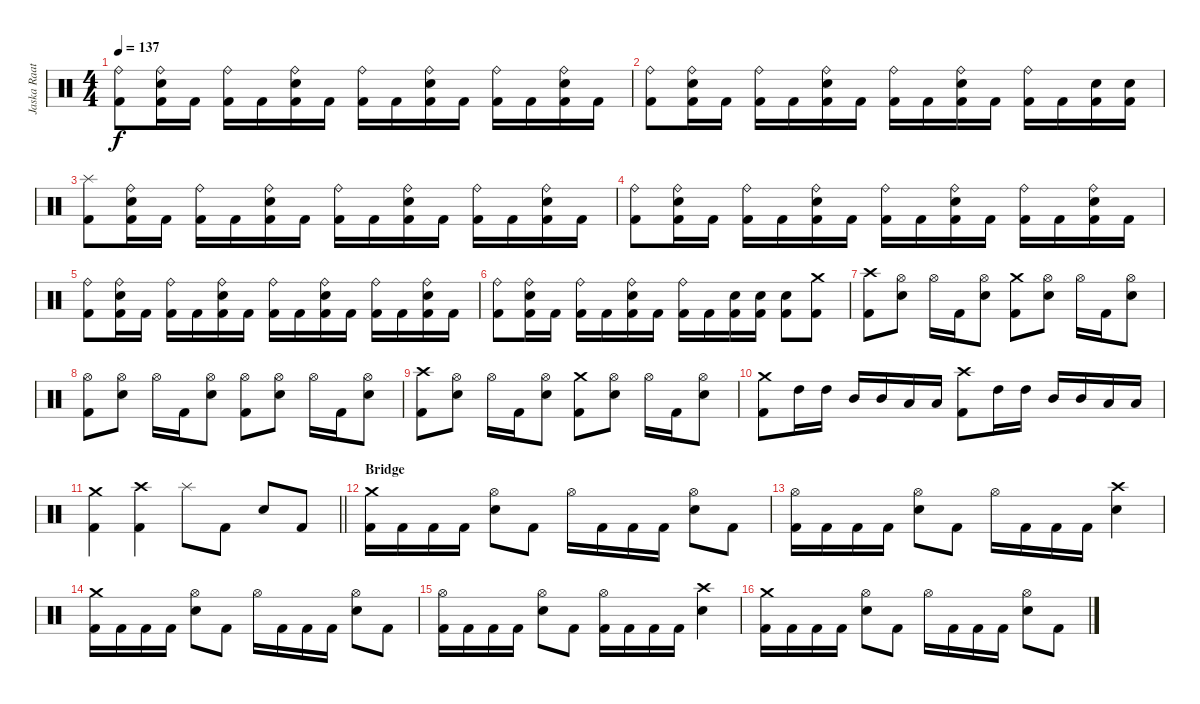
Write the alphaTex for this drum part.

\track ("Jaska Raatikainen" "Jaska Raat") {instrument percussion}
\staff {score}
\articulation defaults
\ts (4 4)
\tempo 137
\clef neutral
\ks c
("Ride (bell)" "Kick (hit) 2").8{dy f} ("Ride (bell)" "Electric Snare (hit)" "Kick (hit) 2").16 "Kick (hit) 2".16 ("Ride (bell)" "Kick (hit) 2").16 "Kick (hit) 2".16 ("Ride (bell)" "Electric Snare (hit)" "Kick (hit) 2").16 "Kick (hit) 2".16 ("Ride (bell)" "Kick (hit) 2").16 "Kick (hit) 2".16 ("Ride (bell)" "Electric Snare (hit)" "Kick (hit) 2").16 "Kick (hit) 2".16 ("Ride (bell)" "Kick (hit) 2").16 "Kick (hit) 2".16 ("Ride (bell)" "Electric Snare (hit)" "Kick (hit) 2").16 "Kick (hit) 2".16 |
("Ride (bell)" "Kick (hit) 2").8 ("Ride (bell)" "Electric Snare (hit)" "Kick (hit) 2").16 "Kick (hit) 2".16 ("Ride (bell)" "Kick (hit) 2").16 "Kick (hit) 2".16 ("Ride (bell)" "Electric Snare (hit)" "Kick (hit) 2").16 "Kick (hit) 2".16 ("Ride (bell)" "Kick (hit) 2").16 "Kick (hit) 2".16 ("Ride (bell)" "Electric Snare (hit)" "Kick (hit) 2").16 "Kick (hit) 2".16 ("Ride (bell)" "Kick (hit) 2").16 "Kick (hit) 2".16 ("Electric Snare (hit)" "Kick (hit) 2").16 ("Electric Snare (hit)" "Kick (hit) 2").16 |
("Splash (hit)" "Kick (hit) 2").8 ("Ride (bell)" "Electric Snare (hit)" "Kick (hit) 2").16 "Kick (hit) 2".16 ("Ride (bell)" "Kick (hit) 2").16 "Kick (hit) 2".16 ("Ride (bell)" "Electric Snare (hit)" "Kick (hit) 2").16 "Kick (hit) 2".16 ("Ride (bell)" "Kick (hit) 2").16 "Kick (hit) 2".16 ("Ride (bell)" "Electric Snare (hit)" "Kick (hit) 2").16 "Kick (hit) 2".16 ("Ride (bell)" "Kick (hit) 2").16 "Kick (hit) 2".16 ("Ride (bell)" "Electric Snare (hit)" "Kick (hit) 2").16 "Kick (hit) 2".16 |
("Ride (bell)" "Kick (hit) 2").8 ("Ride (bell)" "Electric Snare (hit)" "Kick (hit) 2").16 "Kick (hit) 2".16 ("Ride (bell)" "Kick (hit) 2").16 "Kick (hit) 2".16 ("Ride (bell)" "Electric Snare (hit)" "Kick (hit) 2").16 "Kick (hit) 2".16 ("Ride (bell)" "Kick (hit) 2").16 "Kick (hit) 2".16 ("Ride (bell)" "Electric Snare (hit)" "Kick (hit) 2").16 "Kick (hit) 2".16 ("Ride (bell)" "Kick (hit) 2").16 "Kick (hit) 2".16 ("Ride (bell)" "Electric Snare (hit)" "Kick (hit) 2").16 "Kick (hit) 2".16 |
("Ride (bell)" "Kick (hit) 2").8 ("Ride (bell)" "Electric Snare (hit)" "Kick (hit) 2").16 "Kick (hit) 2".16 ("Ride (bell)" "Kick (hit) 2").16 "Kick (hit) 2".16 ("Ride (bell)" "Electric Snare (hit)" "Kick (hit) 2").16 "Kick (hit) 2".16 ("Ride (bell)" "Kick (hit) 2").16 "Kick (hit) 2".16 ("Ride (bell)" "Electric Snare (hit)" "Kick (hit) 2").16 "Kick (hit) 2".16 ("Ride (bell)" "Kick (hit) 2").16 "Kick (hit) 2".16 ("Ride (bell)" "Electric Snare (hit)" "Kick (hit) 2").16 "Kick (hit) 2".16 |
("Ride (bell)" "Kick (hit) 2").8 ("Ride (bell)" "Electric Snare (hit)" "Kick (hit) 2").16 "Kick (hit) 2".16 ("Ride (bell)" "Kick (hit) 2").16 "Kick (hit) 2".16 ("Ride (bell)" "Electric Snare (hit)" "Kick (hit) 2").16 "Kick (hit) 2".16 ("Ride (bell)" "Kick (hit) 2").16 "Kick (hit) 2".16 ("Electric Snare (hit)" "Kick (hit) 2").16 ("Electric Snare (hit)" "Kick (hit) 2").16 ("Electric Snare (hit)" "Kick (hit) 2").8 ("Crash medium (hit)" "Kick (hit) 2").8 |
("Crash high (hit)" "Kick (hit) 2").8 ("Hi-Hat (open)" "Electric Snare (hit)").8 "Hi-Hat (open)".16 "Kick (hit) 2".16 ("Hi-Hat (open)" "Electric Snare (hit)").8 ("Crash medium (hit)" "Kick (hit) 2").8 ("Hi-Hat (open)" "Electric Snare (hit)").8 "Hi-Hat (open)".16 "Kick (hit) 2".16 ("Hi-Hat (open)" "Electric Snare (hit)").8 |
("Hi-Hat (open)" "Kick (hit) 2").8 ("Hi-Hat (open)" "Electric Snare (hit)").8 "Hi-Hat (open)".16 "Kick (hit) 2".16 ("Hi-Hat (open)" "Electric Snare (hit)").8 ("Hi-Hat (open)" "Kick (hit) 2").8 ("Hi-Hat (open)" "Electric Snare (hit)").8 "Hi-Hat (open)".16 "Kick (hit) 2".16 ("Hi-Hat (open)" "Electric Snare (hit)").8 |
("Crash high (hit)" "Kick (hit) 2").8 ("Hi-Hat (open)" "Electric Snare (hit)").8 "Hi-Hat (open)".16 "Kick (hit) 2".16 ("Hi-Hat (open)" "Electric Snare (hit)").8 ("Crash medium (hit)" "Kick (hit) 2").8 ("Hi-Hat (open)" "Electric Snare (hit)").8 "Hi-Hat (open)".16 "Kick (hit) 2".16 ("Hi-Hat (open)" "Electric Snare (hit)").8 |
("Crash medium (hit)" "Kick (hit) 2").8 "High Tom (hit)".16 "High Tom (hit)".16 "Mid Tom (hit)".16 "Mid Tom (hit)".16 "Low Tom (hit)".16 "Low Tom (hit)".16 ("Crash high (hit)" "Kick (hit) 2").8 "High Tom (hit)".16 "High Tom (hit)".16 "Mid Tom (hit)".16 "Mid Tom (hit)".16 "Low Tom (hit)".16 "Low Tom (hit)".16 |
\barLineRight lightlight
("Crash medium (hit)" "Kick (hit) 2").4 ("Crash high (hit)" "Kick (hit) 2").4 "Splash (hit)".8 "Kick (hit) 2".8 "Electric Snare (hit)".8 "Kick (hit) 2".8 |
\section ("" "Bridge")
("Crash medium (hit)" "Kick (hit) 2").16 "Kick (hit) 2".16 "Kick (hit) 2".16 "Kick (hit) 2".16 ("Hi-Hat (open)" "Electric Snare (hit)").8 "Kick (hit) 2".8 "Hi-Hat (open)".16 "Kick (hit) 2".16 "Kick (hit) 2".16 "Kick (hit) 2".16 ("Hi-Hat (open)" "Electric Snare (hit)").8 "Kick (hit) 2".8 |
("Hi-Hat (open)" "Kick (hit) 2").16 "Kick (hit) 2".16 "Kick (hit) 2".16 "Kick (hit) 2".16 ("Hi-Hat (open)" "Electric Snare (hit)").8 "Kick (hit) 2".8 "Hi-Hat (open)".16 "Kick (hit) 2".16 "Kick (hit) 2".16 "Kick (hit) 2".16 ("Crash high (hit)" "Electric Snare (hit)").4 |
("Crash medium (hit)" "Kick (hit) 2").16 "Kick (hit) 2".16 "Kick (hit) 2".16 "Kick (hit) 2".16 ("Hi-Hat (open)" "Electric Snare (hit)").8 "Kick (hit) 2".8 "Hi-Hat (open)".16 "Kick (hit) 2".16 "Kick (hit) 2".16 "Kick (hit) 2".16 ("Hi-Hat (open)" "Electric Snare (hit)").8 "Kick (hit) 2".8 |
("Hi-Hat (open)" "Kick (hit) 2").16 "Kick (hit) 2".16 "Kick (hit) 2".16 "Kick (hit) 2".16 ("Hi-Hat (open)" "Electric Snare (hit)").8 "Kick (hit) 2".8 ("Hi-Hat (open)" "Kick (hit) 2").16 "Kick (hit) 2".16 "Kick (hit) 2".16 "Kick (hit) 2".16 ("Crash high (hit)" "Electric Snare (hit)").4 |
("Crash medium (hit)" "Kick (hit) 2").16 "Kick (hit) 2".16 "Kick (hit) 2".16 "Kick (hit) 2".16 ("Hi-Hat (open)" "Electric Snare (hit)").8 "Kick (hit) 2".8 "Hi-Hat (open)".16 "Kick (hit) 2".16 "Kick (hit) 2".16 "Kick (hit) 2".16 ("Hi-Hat (open)" "Electric Snare (hit)").8 "Kick (hit) 2".8
